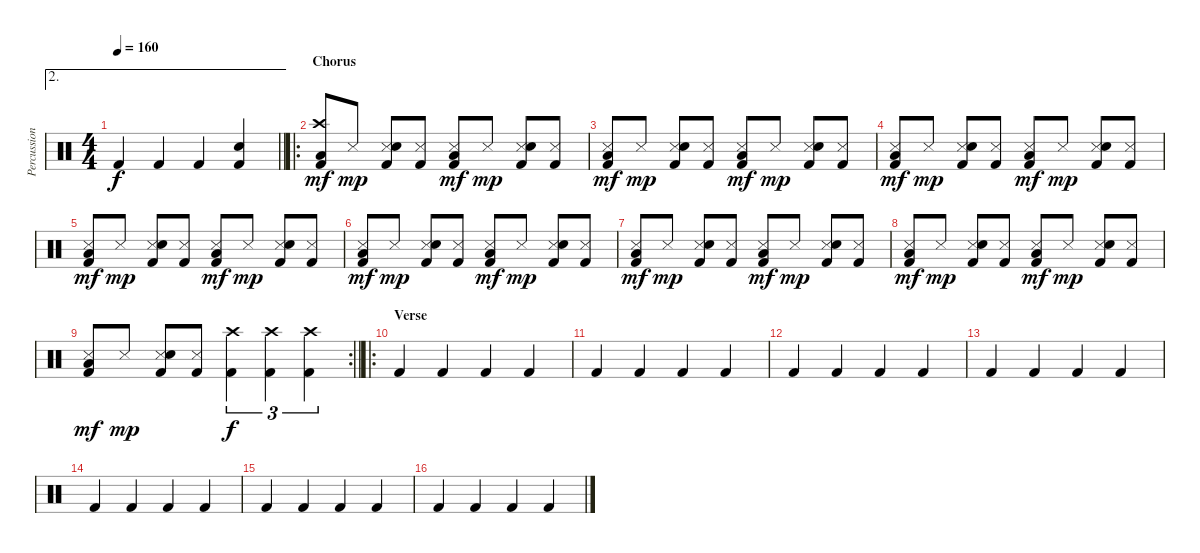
\track ("Percussion" "Percussion") {instrument percussion}
\staff {score}
\articulation defaults
\ae 2
\ts (4 4)
\tempo 160
\clef neutral
\barLineRight lightlight
\ks c "Kick (hit) 2".4{dy f} "Kick (hit) 2".4 "Kick (hit) 2".4
("Electric Snare (hit)" "Kick (hit) 2").4 |
\ro
\section ("" "Chorus")
("Crash high (hit)" "Low Tom (hit)" "Kick (hit) 2").8{dy mf} "Snare (side stick) 3".8{dy mp} ("Snare (side stick) 3" "Electric Snare (hit)" "Kick (hit) 2").8 ("Snare (side stick) 3" "Kick (hit) 2").8 ("Snare (side stick) 3" "Low Tom (hit)" "Kick (hit) 2").8{dy mf} "Snare (side stick) 3".8{dy mp} ("Snare (side stick) 3" "Electric Snare (hit)" "Kick (hit) 2").8 ("Snare (side stick) 3" "Kick (hit) 2").8 |
("Snare (side stick) 3" "Low Tom (hit)" "Kick (hit) 2").8{dy mf} "Snare (side stick) 3".8{dy mp} ("Snare (side stick) 3" "Electric Snare (hit)" "Kick (hit) 2").8 ("Snare (side stick) 3" "Kick (hit) 2").8 ("Snare (side stick) 3" "Low Tom (hit)" "Kick (hit) 2").8{dy mf} "Snare (side stick) 3".8{dy mp} ("Snare (side stick) 3" "Electric Snare (hit)" "Kick (hit) 2").8 ("Snare (side stick) 3" "Kick (hit) 2").8 |
("Snare (side stick) 3" "Low Tom (hit)" "Kick (hit) 2").8{dy mf} "Snare (side stick) 3".8{dy mp} ("Snare (side stick) 3" "Electric Snare (hit)" "Kick (hit) 2").8 ("Snare (side stick) 3" "Kick (hit) 2").8 ("Snare (side stick) 3" "Low Tom (hit)" "Kick (hit) 2").8{dy mf} "Snare (side stick) 3".8{dy mp} ("Snare (side stick) 3" "Electric Snare (hit)" "Kick (hit) 2").8 ("Snare (side stick) 3" "Kick (hit) 2").8 |
("Snare (side stick) 3" "Low Tom (hit)" "Kick (hit) 2").8{dy mf} "Snare (side stick) 3".8{dy mp} ("Snare (side stick) 3" "Electric Snare (hit)" "Kick (hit) 2").8 ("Snare (side stick) 3" "Kick (hit) 2").8 ("Snare (side stick) 3" "Low Tom (hit)" "Kick (hit) 2").8{dy mf} "Snare (side stick) 3".8{dy mp} ("Snare (side stick) 3" "Electric Snare (hit)" "Kick (hit) 2").8 ("Snare (side stick) 3" "Kick (hit) 2").8 |
("Snare (side stick) 3" "Low Tom (hit)" "Kick (hit) 2").8{dy mf} "Snare (side stick) 3".8{dy mp} ("Snare (side stick) 3" "Electric Snare (hit)" "Kick (hit) 2").8 ("Snare (side stick) 3" "Kick (hit) 2").8 ("Snare (side stick) 3" "Low Tom (hit)" "Kick (hit) 2").8{dy mf} "Snare (side stick) 3".8{dy mp} ("Snare (side stick) 3" "Electric Snare (hit)" "Kick (hit) 2").8 ("Snare (side stick) 3" "Kick (hit) 2").8 |
("Snare (side stick) 3" "Low Tom (hit)" "Kick (hit) 2").8{dy mf} "Snare (side stick) 3".8{dy mp} ("Snare (side stick) 3" "Electric Snare (hit)" "Kick (hit) 2").8 ("Snare (side stick) 3" "Kick (hit) 2").8 ("Snare (side stick) 3" "Low Tom (hit)" "Kick (hit) 2").8{dy mf} "Snare (side stick) 3".8{dy mp} ("Snare (side stick) 3" "Electric Snare (hit)" "Kick (hit) 2").8 ("Snare (side stick) 3" "Kick (hit) 2").8 |
("Snare (side stick) 3" "Low Tom (hit)" "Kick (hit) 2").8{dy mf} "Snare (side stick) 3".8{dy mp} ("Snare (side stick) 3" "Electric Snare (hit)" "Kick (hit) 2").8 ("Snare (side stick) 3" "Kick (hit) 2").8 ("Snare (side stick) 3" "Low Tom (hit)" "Kick (hit) 2").8{dy mf} "Snare (side stick) 3".8{dy mp} ("Snare (side stick) 3" "Electric Snare (hit)" "Kick (hit) 2").8 ("Snare (side stick) 3" "Kick (hit) 2").8 |
\rc 2
\barLineRight lightlight
("Snare (side stick) 3" "Low Tom (hit)" "Kick (hit) 2").8{dy mf} "Snare (side stick) 3".8{dy mp} ("Snare (side stick) 3" "Electric Snare (hit)" "Kick (hit) 2").8 ("Snare (side stick) 3" "Kick (hit) 2").8 ("Crash high (hit)" "Kick (hit) 2").4{tu (3 2) dy f} ("Crash high (hit)" "Kick (hit) 2").4{tu (3 2)} ("Crash high (hit)" "Kick (hit) 2").4{tu (3 2)} |
\ro
\section ("" "Verse")
"Kick (hit) 2".4 "Kick (hit) 2".4 "Kick (hit) 2".4 "Kick (hit) 2".4 |
"Kick (hit) 2".4 "Kick (hit) 2".4 "Kick (hit) 2".4 "Kick (hit) 2".4 |
"Kick (hit) 2".4 "Kick (hit) 2".4 "Kick (hit) 2".4 "Kick (hit) 2".4 |
"Kick (hit) 2".4 "Kick (hit) 2".4 "Kick (hit) 2".4 "Kick (hit) 2".4 |
"Kick (hit) 2".4 "Kick (hit) 2".4 "Kick (hit) 2".4 "Kick (hit) 2".4 |
"Kick (hit) 2".4 "Kick (hit) 2".4 "Kick (hit) 2".4 "Kick (hit) 2".4 |
"Kick (hit) 2".4 "Kick (hit) 2".4 "Kick (hit) 2".4 "Kick (hit) 2".4
